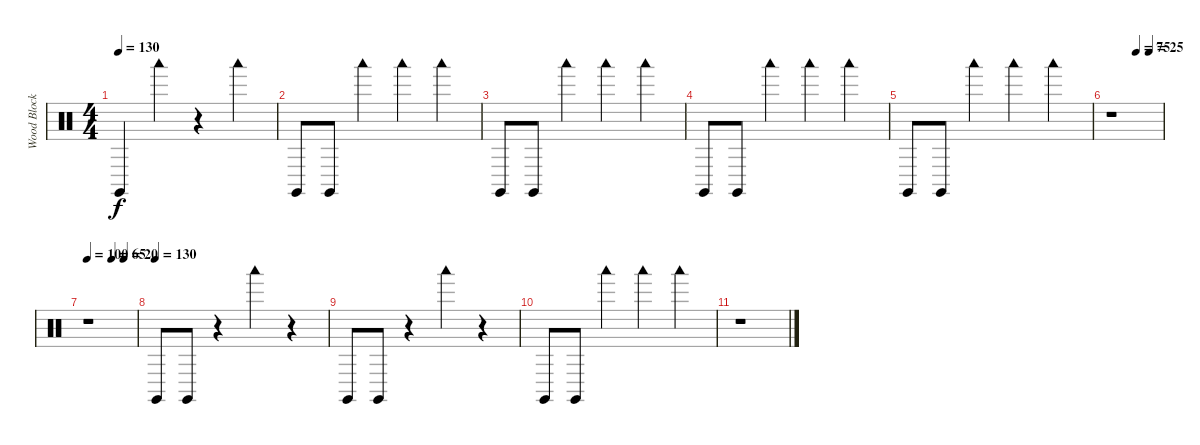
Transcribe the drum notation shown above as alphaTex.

\track ("Wood Blocks" "Wood Block") {instrument percussion}
\staff {score}
\articulation defaults
\ts (4 4)
\tempo 130
\clef neutral
\ks c "Claves (hit)".4{dy f} "Woodblock low (hit)".4
r.4 "Woodblock low (hit)".4 |
"Claves (hit)".8 "Claves (hit)".8 "Woodblock low (hit)".4 "Woodblock low (hit)".4 "Woodblock low (hit)".4 |
"Claves (hit)".8 "Claves (hit)".8 "Woodblock low (hit)".4 "Woodblock low (hit)".4 "Woodblock low (hit)".4 |
"Claves (hit)".8 "Claves (hit)".8 "Woodblock low (hit)".4 "Woodblock low (hit)".4 "Woodblock low (hit)".4 |
"Claves (hit)".8 "Claves (hit)".8 "Woodblock low (hit)".4 "Woodblock low (hit)".4 "Woodblock low (hit)".4 |
\tempo (75 0.5)
\tempo (25 0.75)
r.1 |
\tempo 100
\tempo (65 0.5)
\tempo (20 0.75)
r.1 |
\tempo (130)
"Claves (hit)".8 "Claves (hit)".8 r.4 "Woodblock low (hit)".4 r.4 |
"Claves (hit)".8 "Claves (hit)".8 r.4 "Woodblock low (hit)".4 r.4 |
"Claves (hit)".8 "Claves (hit)".8 "Woodblock low (hit)".4 "Woodblock low (hit)".4 "Woodblock low (hit)".4 |
r.1
